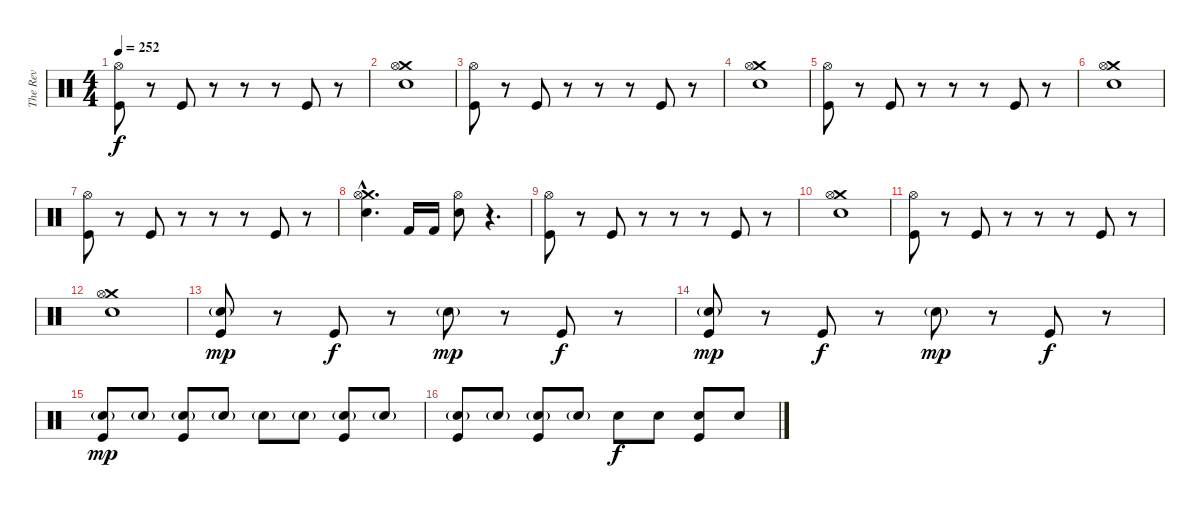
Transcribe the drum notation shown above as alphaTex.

\track ("The Rev" "The Rev") {instrument percussion}
\staff {score}
\articulation defaults
\ts (4 4)
\tempo 252
\clef neutral
\ks c
("Hi-Hat (open)" "Kick (hit)").8{dy f} r.8 "Kick (hit)".8 r.8 r.8 r.8 "Kick (hit)".8 r.8 |
("Crash medium (hit)" "Hi-Hat (open)" "Electric Snare (hit)").1 |
("Hi-Hat (open)" "Kick (hit)").8 r.8 "Kick (hit)".8 r.8 r.8 r.8 "Kick (hit)".8 r.8 |
("Crash medium (hit)" "Hi-Hat (open)" "Electric Snare (hit)").1 |
("Hi-Hat (open)" "Kick (hit)").8 r.8 "Kick (hit)".8 r.8 r.8 r.8 "Kick (hit)".8 r.8 |
("Crash medium (hit)" "Hi-Hat (open)" "Electric Snare (hit)").1 |
("Hi-Hat (open)" "Kick (hit)").8 r.8 "Kick (hit)".8 r.8 r.8 r.8 "Kick (hit)".8 r.8 |
("Crash medium (hit)"{hac} "Hi-Hat (open)"{hac} "Electric Snare (hit)"{hac}).4{d} "Kick (hit) 2".16 "Kick (hit) 2".16 ("Hi-Hat (open)" "Electric Snare (hit)").8 r.4{d} |
("Hi-Hat (open)" "Kick (hit)").8 r.8 "Kick (hit)".8 r.8 r.8 r.8 "Kick (hit)".8 r.8 |
("Crash medium (hit)" "Hi-Hat (open)" "Electric Snare (hit)").1 |
("Hi-Hat (open)" "Kick (hit)").8 r.8 "Kick (hit)".8 r.8 r.8 r.8 "Kick (hit)".8 r.8 |
("Crash medium (hit)" "Hi-Hat (open)" "Electric Snare (hit)").1 |
("Electric Snare (hit)"{g} "Kick (hit)").8{dy mp} r.8 "Kick (hit)".8{dy f} r.8 "Electric Snare (hit)"{g}.8{dy mp} r.8 "Kick (hit)".8{dy f} r.8 |
("Electric Snare (hit)"{g} "Kick (hit)").8{dy mp} r.8 "Kick (hit)".8{dy f} r.8 "Electric Snare (hit)"{g}.8{dy mp} r.8 "Kick (hit)".8{dy f} r.8 |
("Electric Snare (hit)"{g} "Kick (hit)").8{dy mp} "Electric Snare (hit)"{g}.8 ("Electric Snare (hit)"{g} "Kick (hit)").8 "Electric Snare (hit)"{g}.8 "Electric Snare (hit)"{g}.8 "Electric Snare (hit)"{g}.8 ("Electric Snare (hit)"{g} "Kick (hit)").8 "Electric Snare (hit)"{g}.8 |
("Electric Snare (hit)"{g} "Kick (hit)").8 "Electric Snare (hit)"{g}.8 ("Electric Snare (hit)"{g} "Kick (hit)").8 "Electric Snare (hit)"{g}.8 "Electric Snare (hit)".8{dy f} "Electric Snare (hit)".8 ("Electric Snare (hit)" "Kick (hit)").8 "Electric Snare (hit)".8
